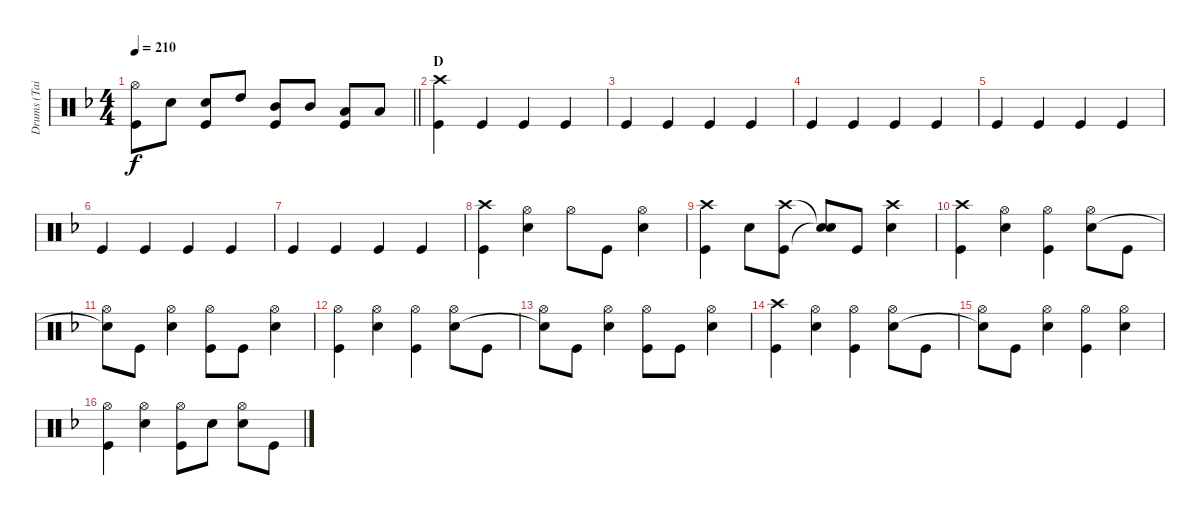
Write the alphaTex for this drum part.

\track ("Drums (Tainaka Ritsu)" "Drums (Tai") {instrument percussion}
\staff {score}
\articulation defaults
\ts (4 4)
\tempo 210
\clef neutral
\barLineRight lightlight
\ks f
("Hi-Hat (open)" "Kick (hit)").8{dy f} "Snare (hit) 2".8 ("Snare (hit) 2" "Kick (hit)").8 "High Tom (hit)".8 ("Mid Tom (hit)" "Kick (hit)").8 "Mid Tom (hit)".8 ("Low Tom (hit)" "Kick (hit)").8 "Low Tom (hit)".8 |
\section ("" "D")
("Crash high (hit)" "Kick (hit)").4 "Kick (hit)".4 "Kick (hit)".4 "Kick (hit)".4 |
"Kick (hit)".4 "Kick (hit)".4 "Kick (hit)".4 "Kick (hit)".4 |
"Kick (hit)".4 "Kick (hit)".4 "Kick (hit)".4 "Kick (hit)".4 |
"Kick (hit)".4 "Kick (hit)".4 "Kick (hit)".4 "Kick (hit)".4 |
"Kick (hit)".4 "Kick (hit)".4 "Kick (hit)".4 "Kick (hit)".4 |
"Kick (hit)".4 "Kick (hit)".4 "Kick (hit)".4 "Kick (hit)".4 |
("Crash high (hit)" "Kick (hit)").4 ("Hi-Hat (open)" "Snare (hit) 2").4 "Hi-Hat (open)".8 "Kick (hit)".8 ("Hi-Hat (open)" "Snare (hit) 2").4 |
("Crash high (hit)" "Kick (hit)").4 "Snare (hit) 2".8 ("Crash high (hit)" "Kick (hit)").8 ("Snare (hit)"{t} "Snare (hit)"{t}).8 "Kick (hit)".8 ("Crash high (hit)" "Snare (hit) 2").4 |
("Crash high (hit)" "Kick (hit)").4 ("Hi-Hat (open)" "Snare (hit) 2").4 ("Hi-Hat (open)" "Kick (hit)").4 ("Hi-Hat (open)" "Snare (hit) 2").8 "Kick (hit)".8 |
("Hi-Hat (open)" "Snare (hit)"{t}).8 "Kick (hit)".8 ("Hi-Hat (open)" "Snare (hit) 2").4 ("Hi-Hat (open)" "Kick (hit)").8 "Kick (hit)".8 ("Hi-Hat (open)" "Snare (hit) 2").4 |
("Hi-Hat (open)" "Kick (hit)").4 ("Hi-Hat (open)" "Snare (hit) 2").4 ("Hi-Hat (open)" "Kick (hit)").4 ("Hi-Hat (open)" "Snare (hit) 2").8 "Kick (hit)".8 |
("Hi-Hat (open)" "Snare (hit)"{t}).8 "Kick (hit)".8 ("Hi-Hat (open)" "Snare (hit) 2").4 ("Hi-Hat (open)" "Kick (hit)").8 "Kick (hit)".8 ("Hi-Hat (open)" "Snare (hit) 2").4 |
("Crash high (hit)" "Kick (hit)").4 ("Hi-Hat (open)" "Snare (hit) 2").4 ("Hi-Hat (open)" "Kick (hit)").4 ("Hi-Hat (open)" "Snare (hit) 2").8 "Kick (hit)".8 |
("Hi-Hat (open)" "Snare (hit)"{t}).8 "Kick (hit)".8 ("Hi-Hat (open)" "Snare (hit) 2").4 ("Hi-Hat (open)" "Kick (hit)").4 ("Hi-Hat (open)" "Snare (hit) 2").4 |
("Hi-Hat (open)" "Kick (hit)").4 ("Hi-Hat (open)" "Snare (hit) 2").4 ("Hi-Hat (open)" "Kick (hit)").8 "Snare (hit) 2".8 ("Hi-Hat (open)" "Snare (hit) 2").8 "Kick (hit)".8
